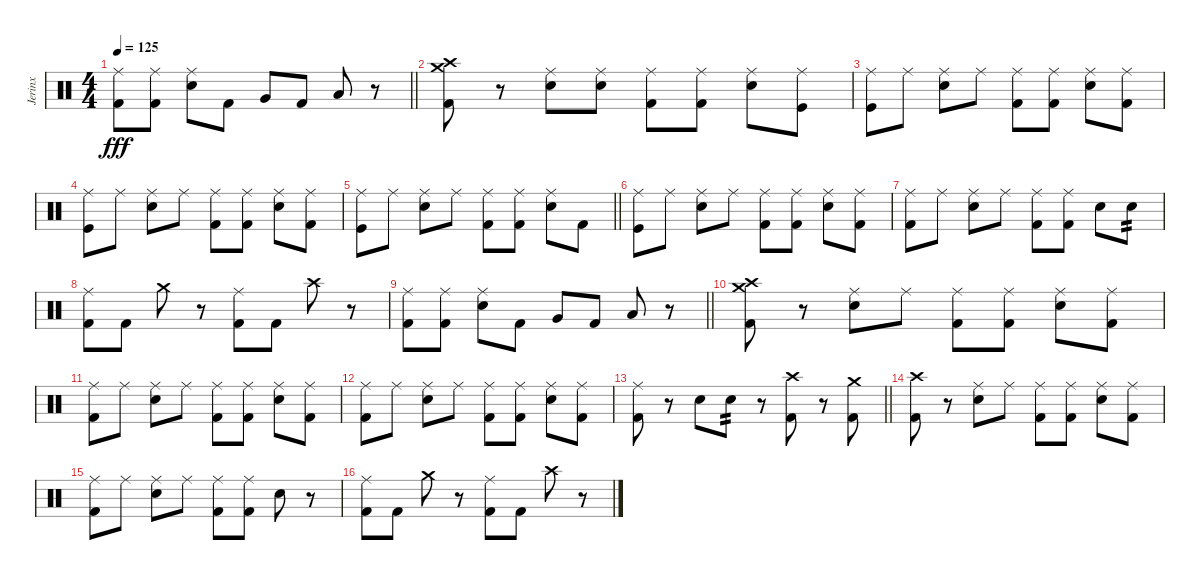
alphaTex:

\track ("Jerinx" "Jerinx") {instrument percussion}
\staff {score}
\articulation defaults
\ts (4 4)
\tempo 125
\clef neutral
\barLineRight lightlight
\ks c
("Kick (hit) 2" "Ride (middle)").8{dy fff} ("Kick (hit) 2" "Ride (middle)").8 ("Snare (hit) 2" "Ride (middle)").8 "Kick (hit) 2".8 "Very Low Tom (hit)".8 "Kick (hit) 2".8 "Low Tom (hit)".8 r.8 |
("Kick (hit) 2" "Crash medium (hit)" "Crash high (hit)").8 r.8 ("Snare (hit) 2" "Ride (middle)").8 ("Snare (hit) 2" "Ride (middle)").8 ("Kick (hit) 2" "Ride (middle)").8 ("Kick (hit) 2" "Ride (middle)").8 ("Snare (hit) 2" "Ride (middle)").8 ("Kick (hit)" "Ride (middle)").8 |
("Kick (hit)" "Ride (middle)").8 "Ride (middle)".8 ("Snare (hit) 2" "Ride (middle)").8 "Ride (middle)".8 ("Kick (hit) 2" "Ride (middle)").8 ("Kick (hit) 2" "Ride (middle)").8 ("Snare (hit) 2" "Ride (middle)").8 ("Kick (hit) 2" "Ride (middle)").8 |
("Kick (hit)" "Ride (middle)").8 "Ride (middle)".8 ("Snare (hit) 2" "Ride (middle)").8 "Ride (middle)".8 ("Kick (hit) 2" "Ride (middle)").8 ("Kick (hit) 2" "Ride (middle)").8 ("Snare (hit) 2" "Ride (middle)").8 ("Kick (hit) 2" "Ride (middle)").8 |
\barLineRight lightlight
("Kick (hit)" "Ride (middle)").8 "Ride (middle)".8 ("Snare (hit) 2" "Ride (middle)").8 "Ride (middle)".8 ("Kick (hit) 2" "Ride (middle)").8 ("Kick (hit) 2" "Ride (middle)").8 ("Snare (hit) 2" "Ride (middle)").8 "Kick (hit) 2".8 |
("Kick (hit)" "Ride (middle)").8 "Ride (middle)".8 ("Snare (hit) 2" "Ride (middle)").8 "Ride (middle)".8 ("Kick (hit) 2" "Ride (middle)").8 ("Kick (hit) 2" "Ride (middle)").8 ("Snare (hit) 2" "Ride (middle)").8 ("Kick (hit) 2" "Ride (middle)").8 |
("Kick (hit) 2" "Ride (middle)").8 "Ride (middle)".8 ("Snare (hit) 2" "Ride (middle)").8 "Ride (middle)".8 ("Kick (hit) 2" "Ride (middle)").8 ("Kick (hit) 2" "Ride (middle)").8 "Snare (hit) 2".8 "Snare (hit) 2".8{tp 2} |
("Kick (hit) 2" "Ride (middle)").8 "Kick (hit) 2".8 "Crash medium (hit)".8 r.8 ("Kick (hit) 2" "Ride (middle)").8 "Kick (hit) 2".8 "Crash high (hit)".8 r.8 |
\barLineRight lightlight
("Kick (hit) 2" "Ride (middle)").8 ("Kick (hit) 2" "Ride (middle)").8 ("Snare (hit) 2" "Ride (middle)").8 "Kick (hit) 2".8 "Very Low Tom (hit)".8 "Kick (hit) 2".8 "Low Tom (hit)".8 r.8 |
("Kick (hit) 2" "Crash high (hit)" "Crash medium (hit)").8 r.8 ("Snare (hit) 2" "Ride (middle)").8 "Ride (middle)".8 ("Kick (hit) 2" "Ride (middle)").8 ("Kick (hit) 2" "Ride (middle)").8 ("Snare (hit) 2" "Ride (middle)").8 ("Kick (hit) 2" "Ride (middle)").8 |
("Kick (hit) 2" "Ride (middle)").8 "Ride (middle)".8 ("Snare (hit) 2" "Ride (middle)").8 "Ride (middle)".8 ("Kick (hit) 2" "Ride (middle)").8 ("Kick (hit) 2" "Ride (middle)").8 ("Snare (hit) 2" "Ride (middle)").8 ("Kick (hit) 2" "Ride (middle)").8 |
("Kick (hit) 2" "Ride (middle)").8 "Ride (middle)".8 ("Snare (hit) 2" "Ride (middle)").8 "Ride (middle)".8 ("Kick (hit) 2" "Ride (middle)").8 ("Kick (hit) 2" "Ride (middle)").8 ("Snare (hit) 2" "Ride (middle)").8 ("Kick (hit) 2" "Ride (middle)").8 |
\barLineRight lightlight
("Kick (hit) 2" "Ride (middle)").8 r.8 "Snare (hit) 2".8 "Snare (hit) 2".8{tp 2} r.8 ("Kick (hit) 2" "Crash high (hit)").8 r.8 ("Kick (hit) 2" "Crash medium (hit)").8 |
("Kick (hit) 2" "Crash high (hit)").8 r.8 ("Snare (hit) 2" "Ride (middle)").8 "Ride (middle)".8 ("Kick (hit) 2" "Ride (middle)").8 ("Kick (hit) 2" "Ride (middle)").8 ("Snare (hit) 2" "Ride (middle)").8 ("Kick (hit) 2" "Ride (middle)").8 |
("Kick (hit) 2" "Ride (middle)").8 "Ride (middle)".8 ("Snare (hit) 2" "Ride (middle)").8 "Ride (middle)".8 ("Kick (hit) 2" "Ride (middle)").8 ("Kick (hit) 2" "Ride (middle)").8 "Snare (hit) 2".8 r.8 |
("Kick (hit) 2" "Ride (middle)").8 "Kick (hit) 2".8 "Crash medium (hit)".8 r.8 ("Kick (hit) 2" "Ride (middle)").8 "Kick (hit) 2".8 "Crash high (hit)".8 r.8
